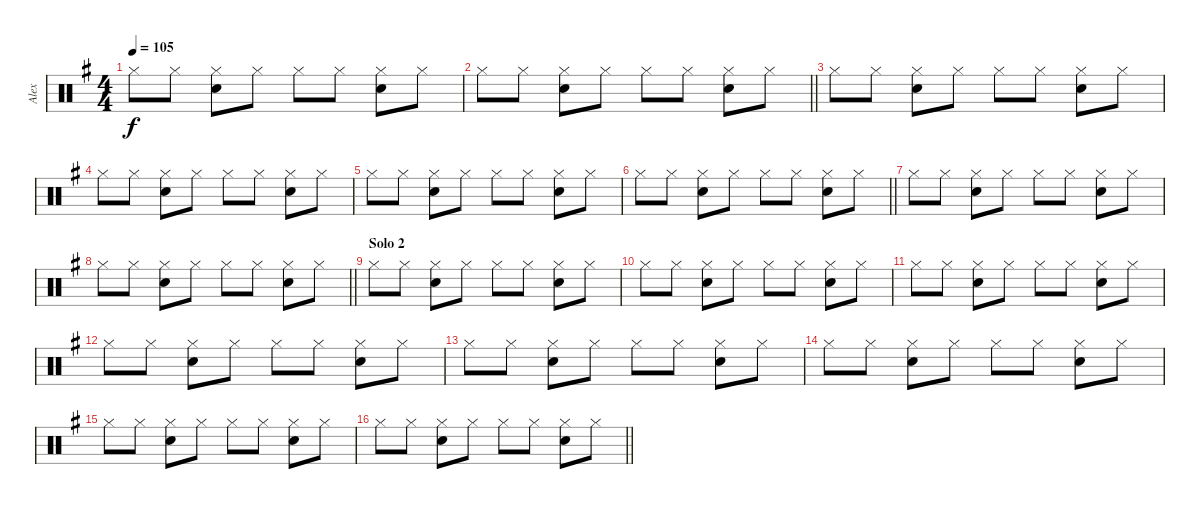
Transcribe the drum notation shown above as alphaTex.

\track ("Alex" "Alex") {instrument percussion}
\staff {score}
\articulation defaults
\ts (4 4)
\tempo 105
\clef neutral
\ks g "Hi-Hat (closed)".8{dy f} "Hi-Hat (closed)".8
("Hi-Hat (closed)" "Snare (hit) 2").8 "Hi-Hat (closed)".8 "Hi-Hat (closed)".8 "Hi-Hat (closed)".8 ("Hi-Hat (closed)" "Snare (hit) 2").8 "Hi-Hat (closed)".8 |
\barLineRight lightlight "Hi-Hat (closed)".8 "Hi-Hat (closed)".8
("Hi-Hat (closed)" "Snare (hit) 2").8 "Hi-Hat (closed)".8 "Hi-Hat (closed)".8 "Hi-Hat (closed)".8 ("Hi-Hat (closed)" "Snare (hit) 2").8 "Hi-Hat (closed)".8 |
"Hi-Hat (closed)".8 "Hi-Hat (closed)".8 ("Hi-Hat (closed)" "Snare (hit) 2").8 "Hi-Hat (closed)".8 "Hi-Hat (closed)".8 "Hi-Hat (closed)".8 ("Hi-Hat (closed)" "Snare (hit) 2").8 "Hi-Hat (closed)".8 |
"Hi-Hat (closed)".8 "Hi-Hat (closed)".8 ("Hi-Hat (closed)" "Snare (hit) 2").8 "Hi-Hat (closed)".8 "Hi-Hat (closed)".8 "Hi-Hat (closed)".8 ("Hi-Hat (closed)" "Snare (hit) 2").8 "Hi-Hat (closed)".8 |
"Hi-Hat (closed)".8 "Hi-Hat (closed)".8 ("Hi-Hat (closed)" "Snare (hit) 2").8 "Hi-Hat (closed)".8 "Hi-Hat (closed)".8 "Hi-Hat (closed)".8 ("Hi-Hat (closed)" "Snare (hit) 2").8 "Hi-Hat (closed)".8 |
\barLineRight lightlight "Hi-Hat (closed)".8 "Hi-Hat (closed)".8
("Hi-Hat (closed)" "Snare (hit) 2").8 "Hi-Hat (closed)".8 "Hi-Hat (closed)".8 "Hi-Hat (closed)".8 ("Hi-Hat (closed)" "Snare (hit) 2").8 "Hi-Hat (closed)".8 |
"Hi-Hat (closed)".8 "Hi-Hat (closed)".8 ("Hi-Hat (closed)" "Snare (hit) 2").8 "Hi-Hat (closed)".8 "Hi-Hat (closed)".8 "Hi-Hat (closed)".8 ("Hi-Hat (closed)" "Snare (hit) 2").8 "Hi-Hat (closed)".8 |
\barLineRight lightlight "Hi-Hat (closed)".8 "Hi-Hat (closed)".8
("Hi-Hat (closed)" "Snare (hit) 2").8 "Hi-Hat (closed)".8 "Hi-Hat (closed)".8 "Hi-Hat (closed)".8 ("Hi-Hat (closed)" "Snare (hit) 2").8 "Hi-Hat (closed)".8 |
\section ("" "Solo 2")
"Hi-Hat (closed)".8 "Hi-Hat (closed)".8 ("Hi-Hat (closed)" "Snare (hit) 2").8 "Hi-Hat (closed)".8 "Hi-Hat (closed)".8 "Hi-Hat (closed)".8 ("Hi-Hat (closed)" "Snare (hit) 2").8 "Hi-Hat (closed)".8 |
"Hi-Hat (closed)".8 "Hi-Hat (closed)".8 ("Hi-Hat (closed)" "Snare (hit) 2").8 "Hi-Hat (closed)".8 "Hi-Hat (closed)".8 "Hi-Hat (closed)".8 ("Hi-Hat (closed)" "Snare (hit) 2").8 "Hi-Hat (closed)".8 |
"Hi-Hat (closed)".8 "Hi-Hat (closed)".8 ("Hi-Hat (closed)" "Snare (hit) 2").8 "Hi-Hat (closed)".8 "Hi-Hat (closed)".8 "Hi-Hat (closed)".8 ("Hi-Hat (closed)" "Snare (hit) 2").8 "Hi-Hat (closed)".8 |
"Hi-Hat (closed)".8 "Hi-Hat (closed)".8 ("Hi-Hat (closed)" "Snare (hit) 2").8 "Hi-Hat (closed)".8 "Hi-Hat (closed)".8 "Hi-Hat (closed)".8 ("Hi-Hat (closed)" "Snare (hit) 2").8 "Hi-Hat (closed)".8 |
"Hi-Hat (closed)".8 "Hi-Hat (closed)".8 ("Hi-Hat (closed)" "Snare (hit) 2").8 "Hi-Hat (closed)".8 "Hi-Hat (closed)".8 "Hi-Hat (closed)".8 ("Hi-Hat (closed)" "Snare (hit) 2").8 "Hi-Hat (closed)".8 |
"Hi-Hat (closed)".8 "Hi-Hat (closed)".8 ("Hi-Hat (closed)" "Snare (hit) 2").8 "Hi-Hat (closed)".8 "Hi-Hat (closed)".8 "Hi-Hat (closed)".8 ("Hi-Hat (closed)" "Snare (hit) 2").8 "Hi-Hat (closed)".8 |
"Hi-Hat (closed)".8 "Hi-Hat (closed)".8 ("Hi-Hat (closed)" "Snare (hit) 2").8 "Hi-Hat (closed)".8 "Hi-Hat (closed)".8 "Hi-Hat (closed)".8 ("Hi-Hat (closed)" "Snare (hit) 2").8 "Hi-Hat (closed)".8 |
\barLineRight lightlight "Hi-Hat (closed)".8 "Hi-Hat (closed)".8
("Hi-Hat (closed)" "Snare (hit) 2").8 "Hi-Hat (closed)".8 "Hi-Hat (closed)".8 "Hi-Hat (closed)".8 ("Hi-Hat (closed)" "Snare (hit) 2").8 "Hi-Hat (closed)".8
